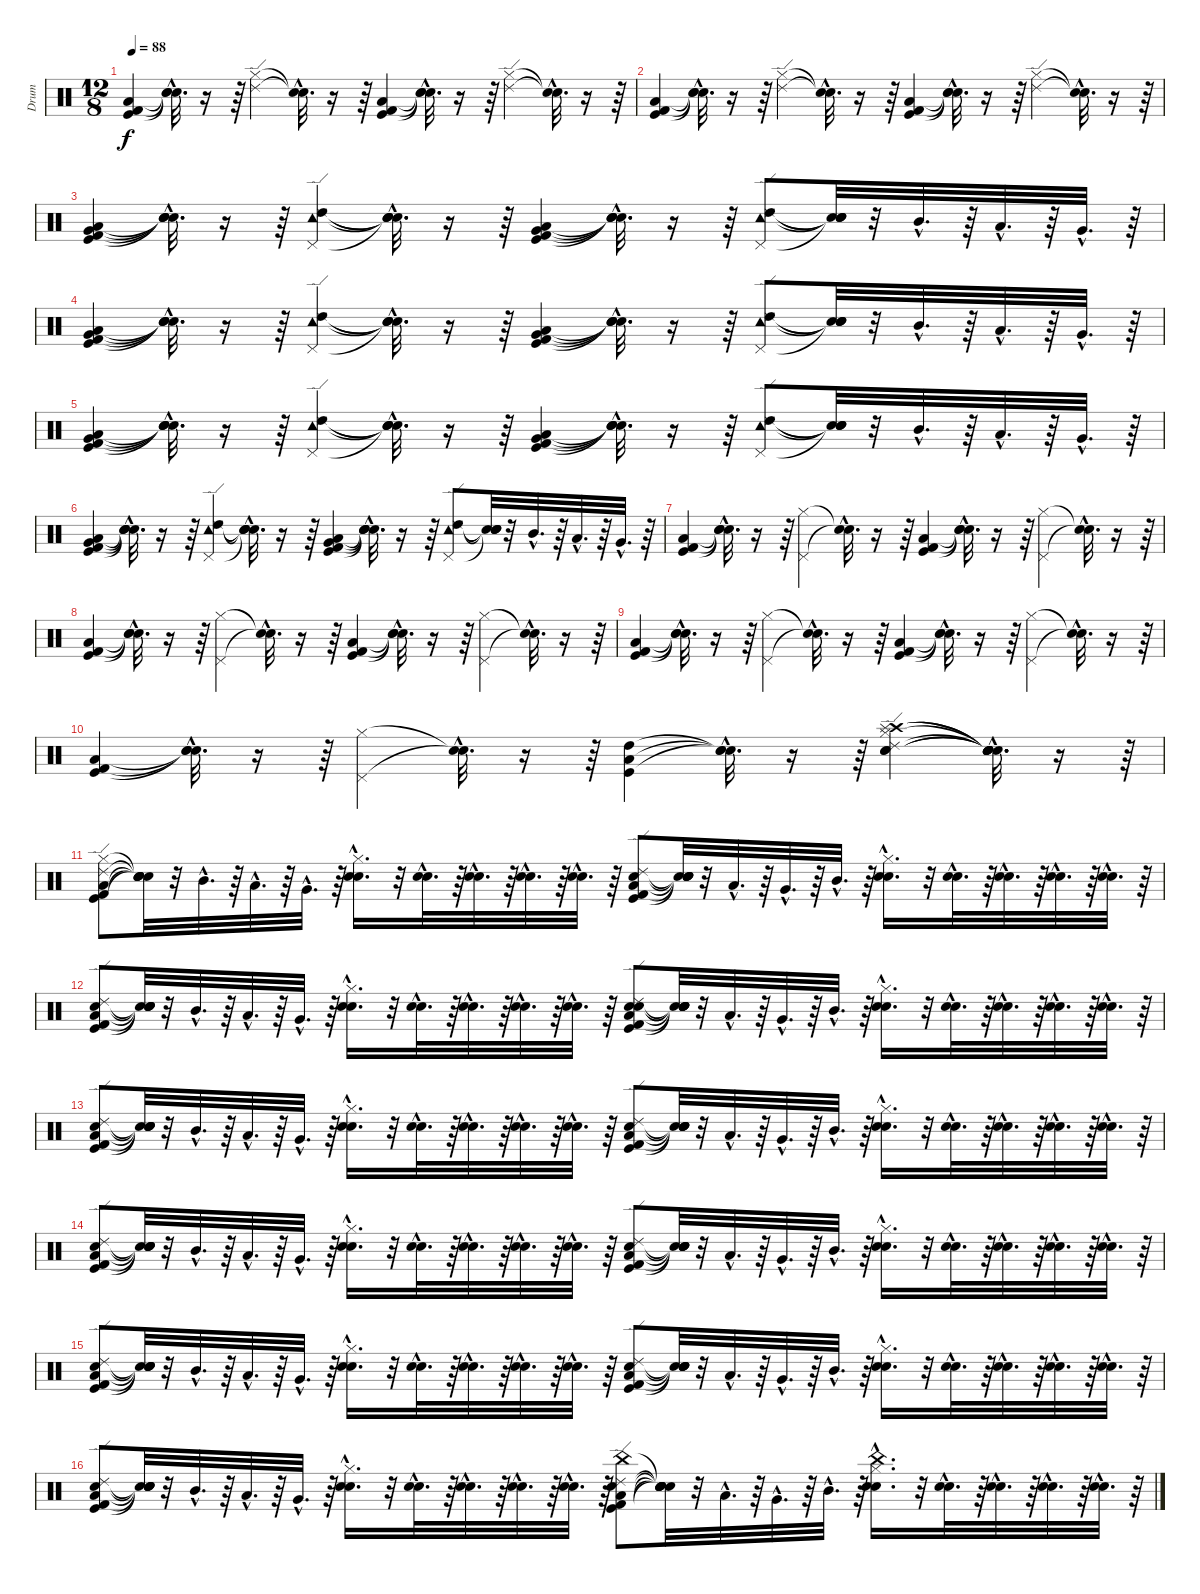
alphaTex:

\track ("Drum" "Drum") {instrument percussion}
\staff {score}
\articulation defaults
\ts (12 8)
\tempo 88
\clef neutral
\ks c
("Kick (hit) 2" "Low Tom (hit)" "Kick (hit)").4{dy f} ("Snare (hit)"{hac t} "Snare (hit)"{hac t} "Snare (hit)"{hac t}).32{d} r.16 r.64 ("Ride (edge) 2" "Hi-Hat (closed)").4 ("Snare (hit)"{hac t} "Snare (hit)"{hac t}).32{d} r.16 r.64 ("Kick (hit) 2" "Kick (hit)" "Low Tom (hit)").4 ("Snare (hit)"{hac t} "Snare (hit)"{hac t} "Snare (hit)"{hac t}).32{d} r.16 r.64 ("Ride (edge) 2" "Hi-Hat (closed)").4 ("Snare (hit)"{hac t} "Snare (hit)"{hac t}).32{d} r.16 r.64 |
("Kick (hit) 2" "Low Tom (hit)" "Kick (hit)").4 ("Snare (hit)"{hac t} "Snare (hit)"{hac t} "Snare (hit)"{hac t}).32{d} r.16 r.64 ("Ride (edge) 2" "Hi-Hat (closed)").4 ("Snare (hit)"{hac t} "Snare (hit)"{hac t}).32{d} r.16 r.64 ("Kick (hit) 2" "Kick (hit)" "Low Tom (hit)").4 ("Snare (hit)"{hac t} "Snare (hit)"{hac t} "Snare (hit)"{hac t}).32{d} r.16 r.64 ("Ride (edge) 2" "Hi-Hat (closed)").4 ("Snare (hit)"{hac t} "Snare (hit)"{hac t}).32{d} r.16 r.64 |
("Very Low Tom (hit)" "Kick (hit) 2" "Kick (hit)" "Low Tom (hit)").4 ("Snare (hit)"{hac t} "Snare (hit)"{hac t} "Snare (hit)"{hac t} "Snare (hit)"{hac t}).32{d} r.16 r.64 ("High Tom (hit)" "Ride (edge) 2" "Tambourine (hit)" "Pedal Hi-Hat (hit)").4 ("Snare (hit)"{hac t} "Snare (hit)"{hac t} "Snare (hit)"{hac t} "Snare (hit)"{hac t}).32{d} r.16 r.64 ("Very Low Tom (hit)" "Kick (hit) 2" "Low Tom (hit)" "Kick (hit)").4 ("Snare (hit)"{hac t} "Snare (hit)"{hac t} "Snare (hit)"{hac t} "Snare (hit)"{hac t}).32{d} r.16 r.64 ("High Tom (hit)" "Ride (edge) 2" "Tambourine (hit)" "Pedal Hi-Hat (hit)").8 ("Snare (hit)"{t} "Snare (hit)"{t} "Snare (hit)"{t} "Snare (hit)"{t}).32 r.32 "Mid Tom (hit)"{hac}.32{d} r.64 "Low Tom (hit)"{hac}.32{d} r.64 "Very Low Tom (hit)"{hac}.32{d} r.64 |
("Low Tom (hit)" "Kick (hit)" "Kick (hit) 2" "Very Low Tom (hit)").4 ("Snare (hit)"{hac t} "Snare (hit)"{hac t} "Snare (hit)"{hac t} "Snare (hit)"{hac t}).32{d} r.16 r.64 ("Pedal Hi-Hat (hit)" "Tambourine (hit)" "Ride (edge) 2" "High Tom (hit)").4 ("Snare (hit)"{hac t} "Snare (hit)"{hac t} "Snare (hit)"{hac t} "Snare (hit)"{hac t}).32{d} r.16 r.64 ("Kick (hit)" "Low Tom (hit)" "Kick (hit) 2" "Very Low Tom (hit)").4 ("Snare (hit)"{hac t} "Snare (hit)"{hac t} "Snare (hit)"{hac t} "Snare (hit)"{hac t}).32{d} r.16 r.64 ("Pedal Hi-Hat (hit)" "Tambourine (hit)" "Ride (edge) 2" "High Tom (hit)").8 ("Snare (hit)"{t} "Snare (hit)"{t} "Snare (hit)"{t} "Snare (hit)"{t}).32 r.32 "Mid Tom (hit)"{hac}.32{d} r.64 "Low Tom (hit)"{hac}.32{d} r.64 "Very Low Tom (hit)"{hac}.32{d} r.64 |
("Low Tom (hit)" "Kick (hit)" "Kick (hit) 2" "Very Low Tom (hit)").4 ("Snare (hit)"{hac t} "Snare (hit)"{hac t} "Snare (hit)"{hac t} "Snare (hit)"{hac t}).32{d} r.16 r.64 ("Pedal Hi-Hat (hit)" "Tambourine (hit)" "Ride (edge) 2" "High Tom (hit)").4 ("Snare (hit)"{hac t} "Snare (hit)"{hac t} "Snare (hit)"{hac t} "Snare (hit)"{hac t}).32{d} r.16 r.64 ("Kick (hit)" "Low Tom (hit)" "Kick (hit) 2" "Very Low Tom (hit)").4 ("Snare (hit)"{hac t} "Snare (hit)"{hac t} "Snare (hit)"{hac t} "Snare (hit)"{hac t}).32{d} r.16 r.64 ("Pedal Hi-Hat (hit)" "Tambourine (hit)" "Ride (edge) 2" "High Tom (hit)").8 ("Snare (hit)"{t} "Snare (hit)"{t} "Snare (hit)"{t} "Snare (hit)"{t}).32 r.32 "Mid Tom (hit)"{hac}.32{d} r.64 "Low Tom (hit)"{hac}.32{d} r.64 "Very Low Tom (hit)"{hac}.32{d} r.64 |
("Low Tom (hit)" "Kick (hit)" "Kick (hit) 2" "Very Low Tom (hit)").4 ("Snare (hit)"{hac t} "Snare (hit)"{hac t} "Snare (hit)"{hac t} "Snare (hit)"{hac t}).32{d} r.16 r.64 ("Pedal Hi-Hat (hit)" "Tambourine (hit)" "Ride (edge) 2" "High Tom (hit)").4 ("Snare (hit)"{hac t} "Snare (hit)"{hac t} "Snare (hit)"{hac t} "Snare (hit)"{hac t}).32{d} r.16 r.64 ("Kick (hit)" "Low Tom (hit)" "Kick (hit) 2" "Very Low Tom (hit)").4 ("Snare (hit)"{hac t} "Snare (hit)"{hac t} "Snare (hit)"{hac t} "Snare (hit)"{hac t}).32{d} r.16 r.64 ("Pedal Hi-Hat (hit)" "Tambourine (hit)" "Ride (edge) 2" "High Tom (hit)").8 ("Snare (hit)"{t} "Snare (hit)"{t} "Snare (hit)"{t} "Snare (hit)"{t}).32 r.32 "Mid Tom (hit)"{hac}.32{d} r.64 "Low Tom (hit)"{hac}.32{d} r.64 "Very Low Tom (hit)"{hac}.32{d} r.64 |
("Kick (hit) 2" "Low Tom (hit)" "Kick (hit)").4 ("Snare (hit)"{hac t} "Snare (hit)"{hac t} "Snare (hit)"{hac t}).32{d} r.16 r.64 ("Pedal Hi-Hat (hit)" "Hi-Hat (closed)").4 ("Snare (hit)"{hac t} "Snare (hit)"{hac t}).32{d} r.16 r.64 ("Kick (hit)" "Low Tom (hit)" "Kick (hit) 2").4 ("Snare (hit)"{hac t} "Snare (hit)"{hac t} "Snare (hit)"{hac t}).32{d} r.16 r.64 ("Hi-Hat (closed)" "Pedal Hi-Hat (hit)").4 ("Snare (hit)"{hac t} "Snare (hit)"{hac t}).32{d} r.16 r.64 |
("Kick (hit)" "Low Tom (hit)" "Kick (hit) 2").4 ("Snare (hit)"{hac t} "Snare (hit)"{hac t} "Snare (hit)"{hac t}).32{d} r.16 r.64 ("Hi-Hat (closed)" "Pedal Hi-Hat (hit)").4 ("Snare (hit)"{hac t} "Snare (hit)"{hac t}).32{d} r.16 r.64 ("Kick (hit)" "Low Tom (hit)" "Kick (hit) 2").4 ("Snare (hit)"{hac t} "Snare (hit)"{hac t} "Snare (hit)"{hac t}).32{d} r.16 r.64 ("Hi-Hat (closed)" "Pedal Hi-Hat (hit)").4 ("Snare (hit)"{hac t} "Snare (hit)"{hac t}).32{d} r.16 r.64 |
("Kick (hit)" "Low Tom (hit)" "Kick (hit) 2").4 ("Snare (hit)"{hac t} "Snare (hit)"{hac t} "Snare (hit)"{hac t}).32{d} r.16 r.64 ("Hi-Hat (closed)" "Pedal Hi-Hat (hit)").4 ("Snare (hit)"{hac t} "Snare (hit)"{hac t}).32{d} r.16 r.64 ("Kick (hit)" "Low Tom (hit)" "Kick (hit) 2").4 ("Snare (hit)"{hac t} "Snare (hit)"{hac t} "Snare (hit)"{hac t}).32{d} r.16 r.64 ("Hi-Hat (closed)" "Pedal Hi-Hat (hit)").4 ("Snare (hit)"{hac t} "Snare (hit)"{hac t}).32{d} r.16 r.64 |
("Low Tom (hit)" "Kick (hit) 2" "Kick (hit)").4 ("Snare (hit)"{hac t} "Snare (hit)"{hac t} "Snare (hit)"{hac t}).32{d} r.16 r.64 ("Pedal Hi-Hat (hit)" "Hi-Hat (closed)").4 ("Snare (hit)"{hac t} "Snare (hit)"{hac t}).32{d} r.16 r.64 ("High Tom (hit)" "Kick (hit)" "Low Tom (hit)").4 ("Snare (hit)"{hac t} "Snare (hit)"{hac t} "Snare (hit)"{hac t}).32{d} r.16 r.64 ("Electric Snare (hit)" "Ride (edge) 2" "Crash high (hit)" "Splash (hit)" "Snare (hit) 2" "Hi-Hat (closed)").4 ("Snare (hit)"{hac t} "Snare (hit)"{hac t} "Snare (hit)"{hac t} "Snare (hit)"{hac t} "Snare (hit)"{hac t} "Snare (hit)"{hac t}).32{d} r.16 r.64 |
("Hi-Hat (closed)" "Ride (edge) 2" "Kick (hit) 2" "Kick (hit)" "Low Tom (hit)").8 ("Snare (hit)"{t} "Snare (hit)"{t} "Snare (hit)"{t} "Snare (hit)"{t} "Snare (hit)"{t}).32 r.32 "Mid Tom (hit)"{hac}.32{d} r.64 "Low Tom (hit)"{hac}.32{d} r.64 "Very Low Tom (hit)"{hac}.32{d} r.64 ("Snare (hit) 2"{hac} "Electric Snare (hit)"{hac} "Hi-Hat (closed)"{hac}).16{d} r.32 ("Electric Snare (hit)"{hac} "Snare (hit) 2"{hac}).32{d} r.64 ("Electric Snare (hit)"{hac} "Snare (hit) 2"{hac}).32{d} r.64 ("Electric Snare (hit)"{hac} "Snare (hit) 2"{hac}).32{d} r.64 ("Electric Snare (hit)"{hac} "Snare (hit) 2"{hac}).32{d} r.64 ("Ride (edge) 2" "Low Tom (hit)" "Kick (hit)" "Kick (hit) 2" "Snare (hit) 2").8 ("Snare (hit)"{t} "Snare (hit)"{t} "Snare (hit)"{t} "Snare (hit)"{t} "Snare (hit)"{t}).32 r.32 "Low Tom (hit)"{hac}.32{d} r.64 "Very Low Tom (hit)"{hac}.32{d} r.64 "Mid Tom (hit)"{hac}.32{d} r.64 ("Hi-Hat (closed)"{hac} "Electric Snare (hit)"{hac} "Snare (hit) 2"{hac}).16{d} r.32 ("Snare (hit) 2"{hac} "Electric Snare (hit)"{hac}).32{d} r.64 ("Snare (hit) 2"{hac} "Electric Snare (hit)"{hac}).32{d} r.64 ("Snare (hit) 2"{hac} "Electric Snare (hit)"{hac}).32{d} r.64 ("Snare (hit) 2"{hac} "Electric Snare (hit)"{hac}).32{d} r.64 |
("Kick (hit) 2" "Kick (hit)" "Snare (hit) 2" "Ride (edge) 2" "Low Tom (hit)").8 ("Snare (hit)"{t} "Snare (hit)"{t} "Snare (hit)"{t} "Snare (hit)"{t} "Snare (hit)"{t}).32 r.32 "Mid Tom (hit)"{hac}.32{d} r.64 "Low Tom (hit)"{hac}.32{d} r.64 "Very Low Tom (hit)"{hac}.32{d} r.64 ("Hi-Hat (closed)"{hac} "Electric Snare (hit)"{hac} "Snare (hit) 2"{hac}).16{d} r.32 ("Snare (hit) 2"{hac} "Electric Snare (hit)"{hac}).32{d} r.64 ("Snare (hit) 2"{hac} "Electric Snare (hit)"{hac}).32{d} r.64 ("Snare (hit) 2"{hac} "Electric Snare (hit)"{hac}).32{d} r.64 ("Snare (hit) 2"{hac} "Electric Snare (hit)"{hac}).32{d} r.64 ("Ride (edge) 2" "Low Tom (hit)" "Electric Snare (hit)" "Kick (hit)" "Kick (hit) 2" "Snare (hit) 2").8 ("Snare (hit)"{t} "Snare (hit)"{t} "Snare (hit)"{t} "Snare (hit)"{t} "Snare (hit)"{t} "Snare (hit)"{t}).32 r.32 "Low Tom (hit)"{hac}.32{d} r.64 "Very Low Tom (hit)"{hac}.32{d} r.64 "Mid Tom (hit)"{hac}.32{d} r.64 ("Snare (hit) 2"{hac} "Electric Snare (hit)"{hac} "Hi-Hat (closed)"{hac}).16{d} r.32 ("Electric Snare (hit)"{hac} "Snare (hit) 2"{hac}).32{d} r.64 ("Electric Snare (hit)"{hac} "Snare (hit) 2"{hac}).32{d} r.64 ("Electric Snare (hit)"{hac} "Snare (hit) 2"{hac}).32{d} r.64 ("Electric Snare (hit)"{hac} "Snare (hit) 2"{hac}).32{d} r.64 |
("Ride (edge) 2" "Low Tom (hit)" "Kick (hit)" "Kick (hit) 2" "Snare (hit) 2").8 ("Snare (hit)"{t} "Snare (hit)"{t} "Snare (hit)"{t} "Snare (hit)"{t} "Snare (hit)"{t}).32 r.32 "Mid Tom (hit)"{hac}.32{d} r.64 "Low Tom (hit)"{hac}.32{d} r.64 "Very Low Tom (hit)"{hac}.32{d} r.64 ("Snare (hit) 2"{hac} "Electric Snare (hit)"{hac} "Hi-Hat (closed)"{hac}).16{d} r.32 ("Electric Snare (hit)"{hac} "Snare (hit) 2"{hac}).32{d} r.64 ("Electric Snare (hit)"{hac} "Snare (hit) 2"{hac}).32{d} r.64 ("Electric Snare (hit)"{hac} "Snare (hit) 2"{hac}).32{d} r.64 ("Electric Snare (hit)"{hac} "Snare (hit) 2"{hac}).32{d} r.64 ("Ride (edge) 2" "Low Tom (hit)" "Kick (hit)" "Kick (hit) 2" "Snare (hit) 2").8 ("Snare (hit)"{t} "Snare (hit)"{t} "Snare (hit)"{t} "Snare (hit)"{t} "Snare (hit)"{t}).32 r.32 "Low Tom (hit)"{hac}.32{d} r.64 "Very Low Tom (hit)"{hac}.32{d} r.64 "Mid Tom (hit)"{hac}.32{d} r.64 ("Hi-Hat (closed)"{hac} "Electric Snare (hit)"{hac} "Snare (hit) 2"{hac}).16{d} r.32 ("Snare (hit) 2"{hac} "Electric Snare (hit)"{hac}).32{d} r.64 ("Snare (hit) 2"{hac} "Electric Snare (hit)"{hac}).32{d} r.64 ("Snare (hit) 2"{hac} "Electric Snare (hit)"{hac}).32{d} r.64 ("Snare (hit) 2"{hac} "Electric Snare (hit)"{hac}).32{d} r.64 |
("Ride (edge) 2" "Low Tom (hit)" "Kick (hit)" "Kick (hit) 2" "Snare (hit) 2").8 ("Snare (hit)"{t} "Snare (hit)"{t} "Snare (hit)"{t} "Snare (hit)"{t} "Snare (hit)"{t}).32 r.32 "Mid Tom (hit)"{hac}.32{d} r.64 "Low Tom (hit)"{hac}.32{d} r.64 "Very Low Tom (hit)"{hac}.32{d} r.64 ("Snare (hit) 2"{hac} "Electric Snare (hit)"{hac} "Hi-Hat (closed)"{hac}).16{d} r.32 ("Electric Snare (hit)"{hac} "Snare (hit) 2"{hac}).32{d} r.64 ("Electric Snare (hit)"{hac} "Snare (hit) 2"{hac}).32{d} r.64 ("Electric Snare (hit)"{hac} "Snare (hit) 2"{hac}).32{d} r.64 ("Electric Snare (hit)"{hac} "Snare (hit) 2"{hac}).32{d} r.64 ("Ride (edge) 2" "Low Tom (hit)" "Kick (hit)" "Kick (hit) 2" "Snare (hit) 2").8 ("Snare (hit)"{t} "Snare (hit)"{t} "Snare (hit)"{t} "Snare (hit)"{t} "Snare (hit)"{t}).32 r.32 "Low Tom (hit)"{hac}.32{d} r.64 "Very Low Tom (hit)"{hac}.32{d} r.64 "Mid Tom (hit)"{hac}.32{d} r.64 ("Hi-Hat (closed)"{hac} "Electric Snare (hit)"{hac} "Snare (hit) 2"{hac}).16{d} r.32 ("Snare (hit) 2"{hac} "Electric Snare (hit)"{hac}).32{d} r.64 ("Snare (hit) 2"{hac} "Electric Snare (hit)"{hac}).32{d} r.64 ("Snare (hit) 2"{hac} "Electric Snare (hit)"{hac}).32{d} r.64 ("Snare (hit) 2"{hac} "Electric Snare (hit)"{hac}).32{d} r.64 |
("Snare (hit) 2" "Kick (hit) 2" "Kick (hit)" "Low Tom (hit)" "Ride (edge) 2").8 ("Snare (hit)"{t} "Snare (hit)"{t} "Snare (hit)"{t} "Snare (hit)"{t} "Snare (hit)"{t}).32 r.32 "Mid Tom (hit)"{hac}.32{d} r.64 "Low Tom (hit)"{hac}.32{d} r.64 "Very Low Tom (hit)"{hac}.32{d} r.64 ("Hi-Hat (closed)"{hac} "Electric Snare (hit)"{hac} "Snare (hit) 2"{hac}).16{d} r.32 ("Snare (hit) 2"{hac} "Electric Snare (hit)"{hac}).32{d} r.64 ("Snare (hit) 2"{hac} "Electric Snare (hit)"{hac}).32{d} r.64 ("Snare (hit) 2"{hac} "Electric Snare (hit)"{hac}).32{d} r.64 ("Snare (hit) 2"{hac} "Electric Snare (hit)"{hac}).32{d} r.64 ("Snare (hit) 2" "Kick (hit) 2" "Kick (hit)" "Low Tom (hit)" "Ride (edge) 2").8 ("Snare (hit)"{t} "Snare (hit)"{t} "Snare (hit)"{t} "Snare (hit)"{t} "Snare (hit)"{t}).32 r.32 "Low Tom (hit)"{hac}.32{d} r.64 "Very Low Tom (hit)"{hac}.32{d} r.64 "Mid Tom (hit)"{hac}.32{d} r.64 ("Snare (hit) 2"{hac} "Electric Snare (hit)"{hac} "Hi-Hat (closed)"{hac}).16{d} r.32 ("Electric Snare (hit)"{hac} "Snare (hit) 2"{hac}).32{d} r.64 ("Electric Snare (hit)"{hac} "Snare (hit) 2"{hac}).32{d} r.64 ("Electric Snare (hit)"{hac} "Snare (hit) 2"{hac}).32{d} r.64 ("Electric Snare (hit)"{hac} "Snare (hit) 2"{hac}).32{d} r.64 |
("Snare (hit) 2" "Kick (hit) 2" "Kick (hit)" "Low Tom (hit)" "Ride (edge) 2").8 ("Snare (hit)"{t} "Snare (hit)"{t} "Snare (hit)"{t} "Snare (hit)"{t} "Snare (hit)"{t}).32 r.32 "Mid Tom (hit)"{hac}.32{d} r.64 "Low Tom (hit)"{hac}.32{d} r.64 "Very Low Tom (hit)"{hac}.32{d} r.64 ("Hi-Hat (closed)"{hac} "Electric Snare (hit)"{hac} "Snare (hit) 2"{hac}).16{d} r.32 ("Snare (hit) 2"{hac} "Electric Snare (hit)"{hac}).32{d} r.64 ("Snare (hit) 2"{hac} "Electric Snare (hit)"{hac}).32{d} r.64 ("Snare (hit) 2"{hac} "Electric Snare (hit)"{hac}).32{d} r.64 ("Snare (hit) 2"{hac} "Electric Snare (hit)"{hac}).32{d} r.64 ("China (hit)" "Snare (hit) 2" "Kick (hit) 2" "Kick (hit)" "Low Tom (hit)" "Ride (edge) 2").8 ("Snare (hit)"{t} "Snare (hit)"{t} "Snare (hit)"{t} "Snare (hit)"{t} "Snare (hit)"{t} "Snare (hit)"{t}).32 r.32 "Low Tom (hit)"{hac}.32{d} r.64 "Very Low Tom (hit)"{hac}.32{d} r.64 "Mid Tom (hit)"{hac}.32{d} r.64 ("China (hit)"{hac} "Snare (hit) 2"{hac} "Electric Snare (hit)"{hac} "Hi-Hat (closed)"{hac}).16{d} r.32 ("Electric Snare (hit)"{hac} "Snare (hit) 2"{hac}).32{d} r.64 ("Electric Snare (hit)"{hac} "Snare (hit) 2"{hac}).32{d} r.64 ("Electric Snare (hit)"{hac} "Snare (hit) 2"{hac}).32{d} r.64 ("Electric Snare (hit)"{hac} "Snare (hit) 2"{hac}).32{d} r.64
